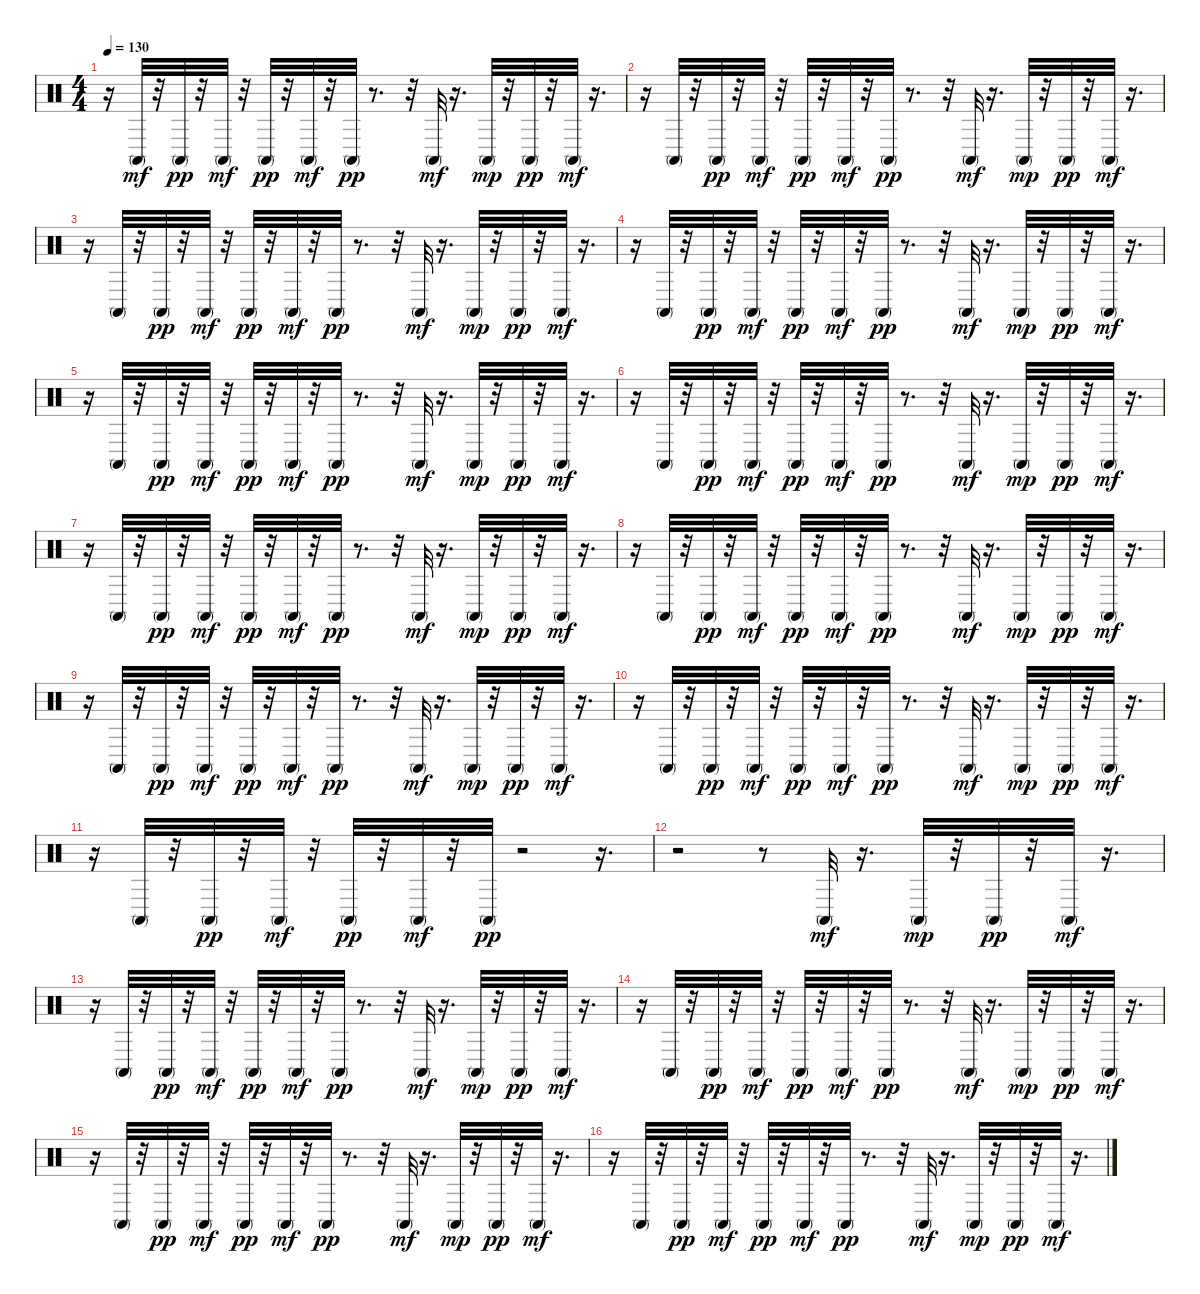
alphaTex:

\track "" {instrument percussion}
\staff {score}
\articulation defaults
\ts (4 4)
\tempo 130
\clef neutral
\ks c
r.16{dy mf} "Conga high (mute)".32 r.32 "Conga high (mute)".32{dy pp} r.32 "Conga high (mute)".32{dy mf} r.32 "Conga high (mute)".32{dy pp} r.32 "Conga high (mute)".32{dy mf} r.32 "Conga high (mute)".32{dy pp} r.8{d} r.32 "Conga high (mute)".32{dy mf} r.16{d} "Conga high (mute)".32{dy mp} r.32 "Conga high (mute)".32{dy pp} r.32 "Conga high (mute)".32{dy mf} r.16{d} |
r.16 "Conga high (mute)".32 r.32 "Conga high (mute)".32{dy pp} r.32 "Conga high (mute)".32{dy mf} r.32 "Conga high (mute)".32{dy pp} r.32 "Conga high (mute)".32{dy mf} r.32 "Conga high (mute)".32{dy pp} r.8{d} r.32 "Conga high (mute)".32{dy mf} r.16{d} "Conga high (mute)".32{dy mp} r.32 "Conga high (mute)".32{dy pp} r.32 "Conga high (mute)".32{dy mf} r.16{d} |
r.16 "Conga high (mute)".32 r.32 "Conga high (mute)".32{dy pp} r.32 "Conga high (mute)".32{dy mf} r.32 "Conga high (mute)".32{dy pp} r.32 "Conga high (mute)".32{dy mf} r.32 "Conga high (mute)".32{dy pp} r.8{d} r.32 "Conga high (mute)".32{dy mf} r.16{d} "Conga high (mute)".32{dy mp} r.32 "Conga high (mute)".32{dy pp} r.32 "Conga high (mute)".32{dy mf} r.16{d} |
r.16 "Conga high (mute)".32 r.32 "Conga high (mute)".32{dy pp} r.32 "Conga high (mute)".32{dy mf} r.32 "Conga high (mute)".32{dy pp} r.32 "Conga high (mute)".32{dy mf} r.32 "Conga high (mute)".32{dy pp} r.8{d} r.32 "Conga high (mute)".32{dy mf} r.16{d} "Conga high (mute)".32{dy mp} r.32 "Conga high (mute)".32{dy pp} r.32 "Conga high (mute)".32{dy mf} r.16{d} |
r.16 "Conga high (mute)".32 r.32 "Conga high (mute)".32{dy pp} r.32 "Conga high (mute)".32{dy mf} r.32 "Conga high (mute)".32{dy pp} r.32 "Conga high (mute)".32{dy mf} r.32 "Conga high (mute)".32{dy pp} r.8{d} r.32 "Conga high (mute)".32{dy mf} r.16{d} "Conga high (mute)".32{dy mp} r.32 "Conga high (mute)".32{dy pp} r.32 "Conga high (mute)".32{dy mf} r.16{d} |
r.16 "Conga high (mute)".32 r.32 "Conga high (mute)".32{dy pp} r.32 "Conga high (mute)".32{dy mf} r.32 "Conga high (mute)".32{dy pp} r.32 "Conga high (mute)".32{dy mf} r.32 "Conga high (mute)".32{dy pp} r.8{d} r.32 "Conga high (mute)".32{dy mf} r.16{d} "Conga high (mute)".32{dy mp} r.32 "Conga high (mute)".32{dy pp} r.32 "Conga high (mute)".32{dy mf} r.16{d} |
r.16 "Conga high (mute)".32 r.32 "Conga high (mute)".32{dy pp} r.32 "Conga high (mute)".32{dy mf} r.32 "Conga high (mute)".32{dy pp} r.32 "Conga high (mute)".32{dy mf} r.32 "Conga high (mute)".32{dy pp} r.8{d} r.32 "Conga high (mute)".32{dy mf} r.16{d} "Conga high (mute)".32{dy mp} r.32 "Conga high (mute)".32{dy pp} r.32 "Conga high (mute)".32{dy mf} r.16{d} |
r.16 "Conga high (mute)".32 r.32 "Conga high (mute)".32{dy pp} r.32 "Conga high (mute)".32{dy mf} r.32 "Conga high (mute)".32{dy pp} r.32 "Conga high (mute)".32{dy mf} r.32 "Conga high (mute)".32{dy pp} r.8{d} r.32 "Conga high (mute)".32{dy mf} r.16{d} "Conga high (mute)".32{dy mp} r.32 "Conga high (mute)".32{dy pp} r.32 "Conga high (mute)".32{dy mf} r.16{d} |
r.16 "Conga high (mute)".32 r.32 "Conga high (mute)".32{dy pp} r.32 "Conga high (mute)".32{dy mf} r.32 "Conga high (mute)".32{dy pp} r.32 "Conga high (mute)".32{dy mf} r.32 "Conga high (mute)".32{dy pp} r.8{d} r.32 "Conga high (mute)".32{dy mf} r.16{d} "Conga high (mute)".32{dy mp} r.32 "Conga high (mute)".32{dy pp} r.32 "Conga high (mute)".32{dy mf} r.16{d} |
r.16 "Conga high (mute)".32 r.32 "Conga high (mute)".32{dy pp} r.32 "Conga high (mute)".32{dy mf} r.32 "Conga high (mute)".32{dy pp} r.32 "Conga high (mute)".32{dy mf} r.32 "Conga high (mute)".32{dy pp} r.8{d} r.32 "Conga high (mute)".32{dy mf} r.16{d} "Conga high (mute)".32{dy mp} r.32 "Conga high (mute)".32{dy pp} r.32 "Conga high (mute)".32{dy mf} r.16{d} |
r.16 "Conga high (mute)".32 r.32 "Conga high (mute)".32{dy pp} r.32 "Conga high (mute)".32{dy mf} r.32 "Conga high (mute)".32{dy pp} r.32 "Conga high (mute)".32{dy mf} r.32 "Conga high (mute)".32{dy pp} r.2 r.16{d} |
r.2 r.8 "Conga high (mute)".32{dy mf} r.16{d} "Conga high (mute)".32{dy mp} r.32 "Conga high (mute)".32{dy pp} r.32 "Conga high (mute)".32{dy mf} r.16{d} |
r.16 "Conga high (mute)".32 r.32 "Conga high (mute)".32{dy pp} r.32 "Conga high (mute)".32{dy mf} r.32 "Conga high (mute)".32{dy pp} r.32 "Conga high (mute)".32{dy mf} r.32 "Conga high (mute)".32{dy pp} r.8{d} r.32 "Conga high (mute)".32{dy mf} r.16{d} "Conga high (mute)".32{dy mp} r.32 "Conga high (mute)".32{dy pp} r.32 "Conga high (mute)".32{dy mf} r.16{d} |
r.16 "Conga high (mute)".32 r.32 "Conga high (mute)".32{dy pp} r.32 "Conga high (mute)".32{dy mf} r.32 "Conga high (mute)".32{dy pp} r.32 "Conga high (mute)".32{dy mf} r.32 "Conga high (mute)".32{dy pp} r.8{d} r.32 "Conga high (mute)".32{dy mf} r.16{d} "Conga high (mute)".32{dy mp} r.32 "Conga high (mute)".32{dy pp} r.32 "Conga high (mute)".32{dy mf} r.16{d} |
r.16 "Conga high (mute)".32 r.32 "Conga high (mute)".32{dy pp} r.32 "Conga high (mute)".32{dy mf} r.32 "Conga high (mute)".32{dy pp} r.32 "Conga high (mute)".32{dy mf} r.32 "Conga high (mute)".32{dy pp} r.8{d} r.32 "Conga high (mute)".32{dy mf} r.16{d} "Conga high (mute)".32{dy mp} r.32 "Conga high (mute)".32{dy pp} r.32 "Conga high (mute)".32{dy mf} r.16{d} |
r.16 "Conga high (mute)".32 r.32 "Conga high (mute)".32{dy pp} r.32 "Conga high (mute)".32{dy mf} r.32 "Conga high (mute)".32{dy pp} r.32 "Conga high (mute)".32{dy mf} r.32 "Conga high (mute)".32{dy pp} r.8{d} r.32 "Conga high (mute)".32{dy mf} r.16{d} "Conga high (mute)".32{dy mp} r.32 "Conga high (mute)".32{dy pp} r.32 "Conga high (mute)".32{dy mf} r.16{d}
